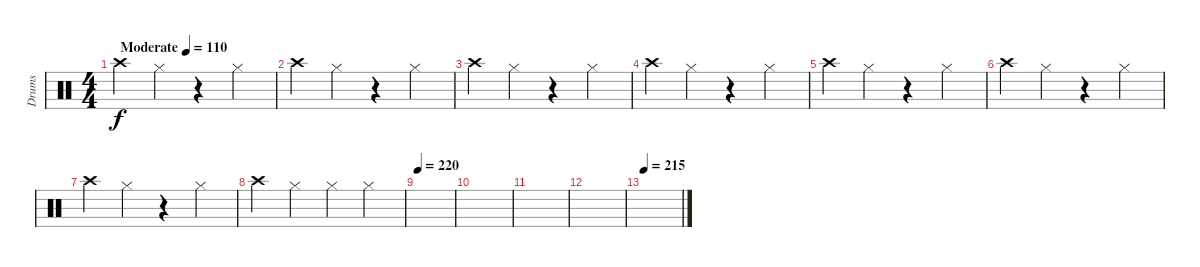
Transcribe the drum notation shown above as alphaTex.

\track ("Drums" "Drums") {instrument percussion}
\staff {score}
\articulation defaults
\ts (4 4)
\tempo (110 "Moderate")
\clef neutral
\ks c "Crash high (hit)".4{dy f} "Hi-Hat (closed)".4
r.4 "Hi-Hat (closed)".4 |
"Crash high (hit)".4 "Hi-Hat (closed)".4 r.4 "Hi-Hat (closed)".4 |
"Crash high (hit)".4 "Hi-Hat (closed)".4 r.4 "Hi-Hat (closed)".4 |
"Crash high (hit)".4 "Hi-Hat (closed)".4 r.4 "Hi-Hat (closed)".4 |
"Crash high (hit)".4 "Hi-Hat (closed)".4 r.4 "Hi-Hat (closed)".4 |
"Crash high (hit)".4 "Hi-Hat (closed)".4 r.4 "Hi-Hat (closed)".4 |
"Crash high (hit)".4 "Hi-Hat (closed)".4 r.4 "Hi-Hat (closed)".4 |
"Crash high (hit)".4 "Hi-Hat (closed)".4 "Hi-Hat (closed)".4 "Hi-Hat (closed)".4 |
\tempo 220
|
|
|
|
\tempo 215
